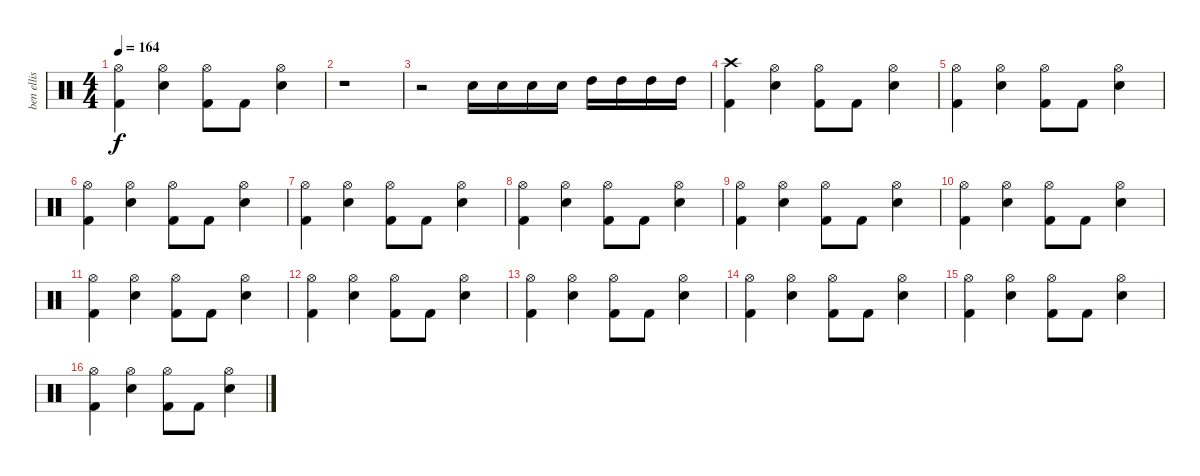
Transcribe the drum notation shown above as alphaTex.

\track ("ben ellis" "ben ellis") {instrument percussion}
\staff {score}
\articulation defaults
\ts (4 4)
\tempo 164
\clef neutral
\ks c
("Hi-Hat (open)" "Kick (hit) 2").4{dy f} ("Hi-Hat (open)" "Electric Snare (hit)").4 ("Hi-Hat (open)" "Kick (hit) 2").8 "Kick (hit) 2".8 ("Hi-Hat (open)" "Electric Snare (hit)").4 |
r.1 |
r.2 "Electric Snare (hit)".16 "Electric Snare (hit)".16 "Electric Snare (hit)".16 "Electric Snare (hit)".16 "High Tom (hit)".16 "High Tom (hit)".16 "High Tom (hit)".16 "High Tom (hit)".16 |
("Crash high (hit)" "Kick (hit) 2").4 ("Hi-Hat (open)" "Electric Snare (hit)").4 ("Hi-Hat (open)" "Kick (hit) 2").8 "Kick (hit) 2".8 ("Hi-Hat (open)" "Electric Snare (hit)").4 |
("Hi-Hat (open)" "Kick (hit) 2").4 ("Hi-Hat (open)" "Electric Snare (hit)").4 ("Hi-Hat (open)" "Kick (hit) 2").8 "Kick (hit) 2".8 ("Hi-Hat (open)" "Electric Snare (hit)").4 |
("Hi-Hat (open)" "Kick (hit) 2").4 ("Hi-Hat (open)" "Electric Snare (hit)").4 ("Hi-Hat (open)" "Kick (hit) 2").8 "Kick (hit) 2".8 ("Hi-Hat (open)" "Electric Snare (hit)").4 |
("Hi-Hat (open)" "Kick (hit) 2").4 ("Hi-Hat (open)" "Electric Snare (hit)").4 ("Hi-Hat (open)" "Kick (hit) 2").8 "Kick (hit) 2".8 ("Hi-Hat (open)" "Electric Snare (hit)").4 |
("Hi-Hat (open)" "Kick (hit) 2").4 ("Hi-Hat (open)" "Electric Snare (hit)").4 ("Hi-Hat (open)" "Kick (hit) 2").8 "Kick (hit) 2".8 ("Hi-Hat (open)" "Electric Snare (hit)").4 |
("Hi-Hat (open)" "Kick (hit) 2").4 ("Hi-Hat (open)" "Electric Snare (hit)").4 ("Hi-Hat (open)" "Kick (hit) 2").8 "Kick (hit) 2".8 ("Hi-Hat (open)" "Electric Snare (hit)").4 |
("Hi-Hat (open)" "Kick (hit) 2").4 ("Hi-Hat (open)" "Electric Snare (hit)").4 ("Hi-Hat (open)" "Kick (hit) 2").8 "Kick (hit) 2".8 ("Hi-Hat (open)" "Electric Snare (hit)").4 |
("Hi-Hat (open)" "Kick (hit) 2").4 ("Hi-Hat (open)" "Electric Snare (hit)").4 ("Hi-Hat (open)" "Kick (hit) 2").8 "Kick (hit) 2".8 ("Hi-Hat (open)" "Electric Snare (hit)").4 |
("Hi-Hat (open)" "Kick (hit) 2").4 ("Hi-Hat (open)" "Electric Snare (hit)").4 ("Hi-Hat (open)" "Kick (hit) 2").8 "Kick (hit) 2".8 ("Hi-Hat (open)" "Electric Snare (hit)").4 |
("Hi-Hat (open)" "Kick (hit) 2").4 ("Hi-Hat (open)" "Electric Snare (hit)").4 ("Hi-Hat (open)" "Kick (hit) 2").8 "Kick (hit) 2".8 ("Hi-Hat (open)" "Electric Snare (hit)").4 |
("Hi-Hat (open)" "Kick (hit) 2").4 ("Hi-Hat (open)" "Electric Snare (hit)").4 ("Hi-Hat (open)" "Kick (hit) 2").8 "Kick (hit) 2".8 ("Hi-Hat (open)" "Electric Snare (hit)").4 |
("Hi-Hat (open)" "Kick (hit) 2").4 ("Hi-Hat (open)" "Electric Snare (hit)").4 ("Hi-Hat (open)" "Kick (hit) 2").8 "Kick (hit) 2".8 ("Hi-Hat (open)" "Electric Snare (hit)").4 |
("Hi-Hat (open)" "Kick (hit) 2").4 ("Hi-Hat (open)" "Electric Snare (hit)").4 ("Hi-Hat (open)" "Kick (hit) 2").8 "Kick (hit) 2".8 ("Hi-Hat (open)" "Electric Snare (hit)").4
